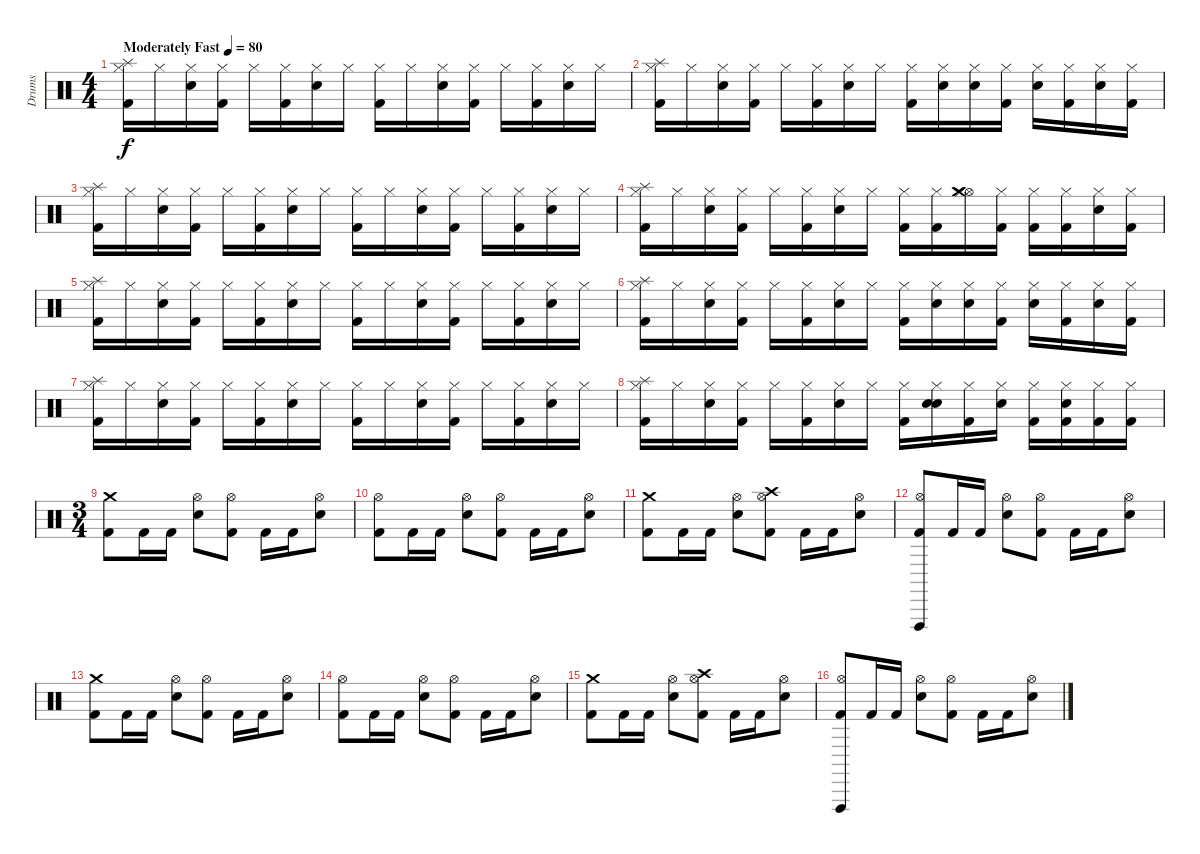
\track ("Drums" "Drums") {instrument percussion}
\staff {score}
\articulation defaults
\ts (4 4)
\tempo (80 "Moderately Fast")
\clef neutral
\ks c
("Kick (hit) 2" "Hi-Hat (closed)" "Splash (hit)").16{dy f} "Hi-Hat (closed)".16 ("Electric Snare (hit)" "Hi-Hat (closed)").16 ("Kick (hit) 2" "Hi-Hat (closed)").16 "Hi-Hat (closed)".16 ("Kick (hit) 2" "Hi-Hat (closed)").16 ("Electric Snare (hit)" "Hi-Hat (closed)").16 "Hi-Hat (closed)".16 ("Kick (hit) 2" "Hi-Hat (closed)").16 "Hi-Hat (closed)".16 ("Electric Snare (hit)" "Hi-Hat (closed)").16 ("Kick (hit) 2" "Hi-Hat (closed)").16 "Hi-Hat (closed)".16 ("Kick (hit) 2" "Hi-Hat (closed)").16 ("Electric Snare (hit)" "Hi-Hat (closed)").16 "Hi-Hat (closed)".16 |
("Kick (hit) 2" "Hi-Hat (closed)" "Splash (hit)").16 "Hi-Hat (closed)".16 ("Electric Snare (hit)" "Hi-Hat (closed)").16 ("Kick (hit) 2" "Hi-Hat (closed)").16 "Hi-Hat (closed)".16 ("Kick (hit) 2" "Hi-Hat (closed)").16 ("Electric Snare (hit)" "Hi-Hat (closed)").16 "Hi-Hat (closed)".16 ("Kick (hit) 2" "Hi-Hat (closed)").16 ("Hi-Hat (closed)" "Electric Snare (hit)").16 ("Electric Snare (hit)" "Hi-Hat (closed)").16 ("Kick (hit) 2" "Hi-Hat (closed)").16 ("Hi-Hat (closed)" "Electric Snare (hit)").16 ("Kick (hit) 2" "Hi-Hat (closed)").16 ("Electric Snare (hit)" "Hi-Hat (closed)").16 ("Hi-Hat (closed)" "Kick (hit) 2").16 |
("Kick (hit) 2" "Hi-Hat (closed)" "Splash (hit)").16 "Hi-Hat (closed)".16 ("Electric Snare (hit)" "Hi-Hat (closed)").16 ("Kick (hit) 2" "Hi-Hat (closed)").16 "Hi-Hat (closed)".16 ("Kick (hit) 2" "Hi-Hat (closed)").16 ("Electric Snare (hit)" "Hi-Hat (closed)").16 "Hi-Hat (closed)".16 ("Kick (hit) 2" "Hi-Hat (closed)").16 "Hi-Hat (closed)".16 ("Electric Snare (hit)" "Hi-Hat (closed)").16 ("Kick (hit) 2" "Hi-Hat (closed)").16 "Hi-Hat (closed)".16 ("Kick (hit) 2" "Hi-Hat (closed)").16 ("Electric Snare (hit)" "Hi-Hat (closed)").16 "Hi-Hat (closed)".16 |
("Kick (hit) 2" "Hi-Hat (closed)" "Splash (hit)").16 "Hi-Hat (closed)".16 ("Electric Snare (hit)" "Hi-Hat (closed)").16 ("Kick (hit) 2" "Hi-Hat (closed)").16 "Hi-Hat (closed)".16 ("Kick (hit) 2" "Hi-Hat (closed)").16 ("Electric Snare (hit)" "Hi-Hat (closed)").16 "Hi-Hat (closed)".16 ("Kick (hit) 2" "Hi-Hat (closed)").16 ("Kick (hit) 2" "Hi-Hat (closed)").16 ("Hi-Hat (open)" "Hi-Hat (closed)" "Crash medium (hit)").16 ("Kick (hit) 2" "Hi-Hat (closed)").16 ("Kick (hit) 2" "Hi-Hat (closed)").16 ("Kick (hit) 2" "Hi-Hat (closed)").16 ("Electric Snare (hit)" "Hi-Hat (closed)").16 ("Hi-Hat (closed)" "Kick (hit) 2").16 |
("Kick (hit) 2" "Hi-Hat (closed)" "Splash (hit)").16 "Hi-Hat (closed)".16 ("Electric Snare (hit)" "Hi-Hat (closed)").16 ("Kick (hit) 2" "Hi-Hat (closed)").16 "Hi-Hat (closed)".16 ("Kick (hit) 2" "Hi-Hat (closed)").16 ("Electric Snare (hit)" "Hi-Hat (closed)").16 "Hi-Hat (closed)".16 ("Kick (hit) 2" "Hi-Hat (closed)").16 "Hi-Hat (closed)".16 ("Electric Snare (hit)" "Hi-Hat (closed)").16 ("Kick (hit) 2" "Hi-Hat (closed)").16 "Hi-Hat (closed)".16 ("Kick (hit) 2" "Hi-Hat (closed)").16 ("Electric Snare (hit)" "Hi-Hat (closed)").16 "Hi-Hat (closed)".16 |
("Kick (hit) 2" "Hi-Hat (closed)" "Splash (hit)").16 "Hi-Hat (closed)".16 ("Electric Snare (hit)" "Hi-Hat (closed)").16 ("Kick (hit) 2" "Hi-Hat (closed)").16 "Hi-Hat (closed)".16 ("Kick (hit) 2" "Hi-Hat (closed)").16 ("Electric Snare (hit)" "Hi-Hat (closed)").16 "Hi-Hat (closed)".16 ("Kick (hit) 2" "Hi-Hat (closed)").16 ("Hi-Hat (closed)" "Electric Snare (hit)").16 ("Electric Snare (hit)" "Hi-Hat (closed)").16 ("Kick (hit) 2" "Hi-Hat (closed)").16 ("Hi-Hat (closed)" "Electric Snare (hit)").16 ("Kick (hit) 2" "Hi-Hat (closed)").16 ("Electric Snare (hit)" "Hi-Hat (closed)").16 ("Hi-Hat (closed)" "Kick (hit) 2").16 |
("Kick (hit) 2" "Hi-Hat (closed)" "Splash (hit)").16 "Hi-Hat (closed)".16 ("Electric Snare (hit)" "Hi-Hat (closed)").16 ("Kick (hit) 2" "Hi-Hat (closed)").16 "Hi-Hat (closed)".16 ("Kick (hit) 2" "Hi-Hat (closed)").16 ("Electric Snare (hit)" "Hi-Hat (closed)").16 "Hi-Hat (closed)".16 ("Kick (hit) 2" "Hi-Hat (closed)").16 "Hi-Hat (closed)".16 ("Electric Snare (hit)" "Hi-Hat (closed)").16 ("Kick (hit) 2" "Hi-Hat (closed)").16 "Hi-Hat (closed)".16 ("Kick (hit) 2" "Hi-Hat (closed)").16 ("Electric Snare (hit)" "Hi-Hat (closed)").16 "Hi-Hat (closed)".16 |
("Kick (hit) 2" "Hi-Hat (closed)" "Splash (hit)").16 "Hi-Hat (closed)".16 ("Electric Snare (hit)" "Hi-Hat (closed)").16 ("Kick (hit) 2" "Hi-Hat (closed)").16 "Hi-Hat (closed)".16 ("Kick (hit) 2" "Hi-Hat (closed)").16 ("Electric Snare (hit)" "Hi-Hat (closed)").16 "Hi-Hat (closed)".16 ("Kick (hit) 2" "Hi-Hat (closed)").16 ("Electric Snare (hit)" "Hi-Hat (closed)" "Electric Snare (hit)").16 ("Kick (hit) 2" "Hi-Hat (closed)").16 ("Hi-Hat (closed)" "Electric Snare (hit)").16 ("Kick (hit) 2" "Hi-Hat (closed)").16 ("Kick (hit) 2" "Hi-Hat (closed)" "Electric Snare (hit)").16 ("Kick (hit) 2" "Hi-Hat (closed)").16 ("Hi-Hat (closed)" "Kick (hit) 2").16 |
\ts (3 4)
("Kick (hit) 2" "Crash medium (hit)").8 "Kick (hit) 2".16 "Kick (hit) 2".16 ("Electric Snare (hit)" "Hi-Hat (open)").8 ("Kick (hit) 2" "Hi-Hat (open)").8 "Kick (hit) 2".16 "Kick (hit) 2".16 ("Electric Snare (hit)" "Hi-Hat (open)").8 |
("Kick (hit) 2" "Hi-Hat (open)").8 "Kick (hit) 2".16 "Kick (hit) 2".16 ("Electric Snare (hit)" "Hi-Hat (open)").8 ("Kick (hit) 2" "Hi-Hat (open)").8 "Kick (hit) 2".16 "Kick (hit) 2".16 ("Electric Snare (hit)" "Hi-Hat (open)").8 |
("Kick (hit) 2" "Crash medium (hit)").8 "Kick (hit) 2".16 "Kick (hit) 2".16 ("Electric Snare (hit)" "Hi-Hat (open)").8 ("Kick (hit) 2" "Hi-Hat (open)" "Crash high (hit)").8 "Kick (hit) 2".16 "Kick (hit) 2".16 ("Electric Snare (hit)" "Hi-Hat (open)").8 |
("Kick (hit) 2" "Hi-Hat (open)" "Vibraslap (hit)").8 "Kick (hit) 2".16 "Kick (hit) 2".16 ("Electric Snare (hit)" "Hi-Hat (open)").8 ("Kick (hit) 2" "Hi-Hat (open)").8 "Kick (hit) 2".16 "Kick (hit) 2".16 ("Electric Snare (hit)" "Hi-Hat (open)").8 |
("Kick (hit) 2" "Crash medium (hit)").8 "Kick (hit) 2".16 "Kick (hit) 2".16 ("Electric Snare (hit)" "Hi-Hat (open)").8 ("Kick (hit) 2" "Hi-Hat (open)").8 "Kick (hit) 2".16 "Kick (hit) 2".16 ("Electric Snare (hit)" "Hi-Hat (open)").8 |
("Kick (hit) 2" "Hi-Hat (open)").8 "Kick (hit) 2".16 "Kick (hit) 2".16 ("Electric Snare (hit)" "Hi-Hat (open)").8 ("Kick (hit) 2" "Hi-Hat (open)").8 "Kick (hit) 2".16 "Kick (hit) 2".16 ("Electric Snare (hit)" "Hi-Hat (open)").8 |
("Kick (hit) 2" "Crash medium (hit)").8 "Kick (hit) 2".16 "Kick (hit) 2".16 ("Electric Snare (hit)" "Hi-Hat (open)").8 ("Kick (hit) 2" "Hi-Hat (open)" "Crash high (hit)").8 "Kick (hit) 2".16 "Kick (hit) 2".16 ("Electric Snare (hit)" "Hi-Hat (open)").8 |
("Kick (hit) 2" "Hi-Hat (open)" "Vibraslap (hit)").8 "Kick (hit) 2".16 "Kick (hit) 2".16 ("Electric Snare (hit)" "Hi-Hat (open)").8 ("Kick (hit) 2" "Hi-Hat (open)").8 "Kick (hit) 2".16 "Kick (hit) 2".16 ("Electric Snare (hit)" "Hi-Hat (open)").8
